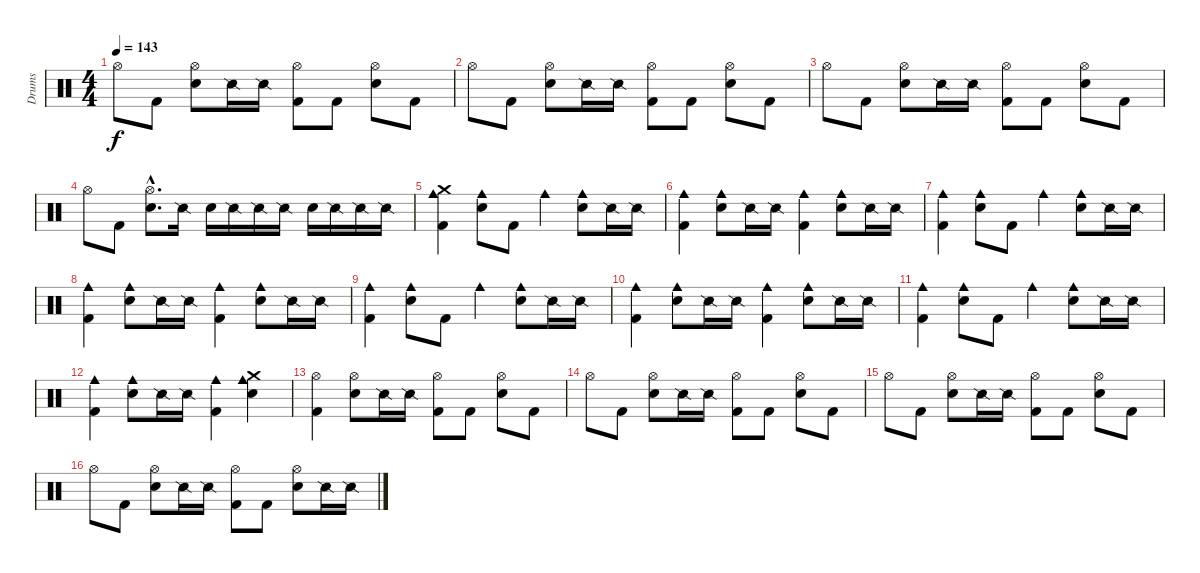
\track ("Drums" "Drums") {instrument percussion}
\staff {score}
\articulation defaults
\ts (4 4)
\tempo 143
\clef neutral
\ks c "Hi-Hat (open)".8{dy f} "Kick (hit) 2".8
("Hi-Hat (open)" "Metronome (bell)").8 "Snare (side stick) 2".16 "Snare (side stick) 2".16 ("Hi-Hat (open)" "Kick (hit) 2").8 "Kick (hit) 2".8 ("Hi-Hat (open)" "Metronome (bell)").8 "Kick (hit) 2".8 |
"Hi-Hat (open)".8 "Kick (hit) 2".8 ("Hi-Hat (open)" "Metronome (bell)").8 "Snare (side stick) 2".16 "Snare (side stick) 2".16 ("Hi-Hat (open)" "Kick (hit) 2").8 "Kick (hit) 2".8 ("Hi-Hat (open)" "Metronome (bell)").8 "Kick (hit) 2".8 |
"Hi-Hat (open)".8 "Kick (hit) 2".8 ("Hi-Hat (open)" "Metronome (bell)").8 "Snare (side stick) 2".16 "Snare (side stick) 2".16 ("Hi-Hat (open)" "Kick (hit) 2").8 "Kick (hit) 2".8 ("Hi-Hat (open)" "Metronome (bell)").8 "Kick (hit) 2".8 |
"Hi-Hat (open)".8 "Kick (hit) 2".8 ("Hi-Hat (open)"{hac} "Metronome (bell)"{hac}).8{d} "Snare (side stick) 2".16 "Metronome (bell)".16 "Snare (side stick) 2".16 "Snare (side stick) 2".16 "Snare (side stick) 2".16 "Metronome (bell)".16 "Snare (side stick) 2".16 "Snare (side stick) 2".16 "Snare (side stick) 2".16 |
("Cowbell medium (hit)" "Crash medium (hit)" "Kick (hit) 2").4 ("Cowbell medium (hit)" "Metronome (bell)").8 "Kick (hit) 2".8 "Cowbell medium (hit)".4 ("Cowbell medium (hit)" "Metronome (bell)").8 "Snare (side stick) 2".16 "Snare (side stick) 2".16 |
("Cowbell medium (hit)" "Kick (hit) 2").4 ("Cowbell medium (hit)" "Metronome (bell)").8 "Snare (side stick) 2".16 "Snare (side stick) 2".16 ("Cowbell medium (hit)" "Kick (hit) 2").4 ("Cowbell medium (hit)" "Metronome (bell)").8 "Snare (side stick) 2".16 "Snare (side stick) 2".16 |
("Cowbell medium (hit)" "Kick (hit) 2").4 ("Cowbell medium (hit)" "Metronome (bell)").8 "Kick (hit) 2".8 "Cowbell medium (hit)".4 ("Cowbell medium (hit)" "Metronome (bell)").8 "Snare (side stick) 2".16 "Snare (side stick) 2".16 |
("Cowbell medium (hit)" "Kick (hit) 2").4 ("Cowbell medium (hit)" "Metronome (bell)").8 "Snare (side stick) 2".16 "Snare (side stick) 2".16 ("Cowbell medium (hit)" "Kick (hit) 2").4 ("Cowbell medium (hit)" "Metronome (bell)").8 "Snare (side stick) 2".16 "Snare (side stick) 2".16 |
("Cowbell medium (hit)" "Kick (hit) 2").4 ("Cowbell medium (hit)" "Metronome (bell)").8 "Kick (hit) 2".8 "Cowbell medium (hit)".4 ("Cowbell medium (hit)" "Metronome (bell)").8 "Snare (side stick) 2".16 "Snare (side stick) 2".16 |
("Cowbell medium (hit)" "Kick (hit) 2").4 ("Cowbell medium (hit)" "Metronome (bell)").8 "Snare (side stick) 2".16 "Snare (side stick) 2".16 ("Cowbell medium (hit)" "Kick (hit) 2").4 ("Cowbell medium (hit)" "Metronome (bell)").8 "Snare (side stick) 2".16 "Snare (side stick) 2".16 |
("Cowbell medium (hit)" "Kick (hit) 2").4 ("Cowbell medium (hit)" "Metronome (bell)").8 "Kick (hit) 2".8 "Cowbell medium (hit)".4 ("Cowbell medium (hit)" "Metronome (bell)").8 "Snare (side stick) 2".16 "Snare (side stick) 2".16 |
("Cowbell medium (hit)" "Kick (hit) 2").4 ("Cowbell medium (hit)" "Metronome (bell)").8 "Snare (side stick) 2".16 "Snare (side stick) 2".16 ("Cowbell medium (hit)" "Kick (hit) 2").4 ("Cowbell medium (hit)" "Crash medium (hit)" "Metronome (bell)").4 |
("Hi-Hat (open)" "Kick (hit) 2").4 ("Hi-Hat (open)" "Metronome (bell)").8 "Snare (side stick) 2".16 "Snare (side stick) 2".16 ("Hi-Hat (open)" "Kick (hit) 2").8 "Kick (hit) 2".8 ("Hi-Hat (open)" "Metronome (bell)").8 "Kick (hit) 2".8 |
"Hi-Hat (open)".8 "Kick (hit) 2".8 ("Hi-Hat (open)" "Metronome (bell)").8 "Snare (side stick) 2".16 "Snare (side stick) 2".16 ("Hi-Hat (open)" "Kick (hit) 2").8 "Kick (hit) 2".8 ("Hi-Hat (open)" "Metronome (bell)").8 "Kick (hit) 2".8 |
"Hi-Hat (open)".8 "Kick (hit) 2".8 ("Hi-Hat (open)" "Metronome (bell)").8 "Snare (side stick) 2".16 "Snare (side stick) 2".16 ("Hi-Hat (open)" "Kick (hit) 2").8 "Kick (hit) 2".8 ("Hi-Hat (open)" "Metronome (bell)").8 "Kick (hit) 2".8 |
"Hi-Hat (open)".8 "Kick (hit) 2".8 ("Hi-Hat (open)" "Metronome (bell)").8 "Snare (side stick) 2".16 "Snare (side stick) 2".16 ("Hi-Hat (open)" "Kick (hit) 2").8 "Kick (hit) 2".8 ("Hi-Hat (open)" "Metronome (bell)").8 "Snare (side stick) 2".16 "Snare (side stick) 2".16
